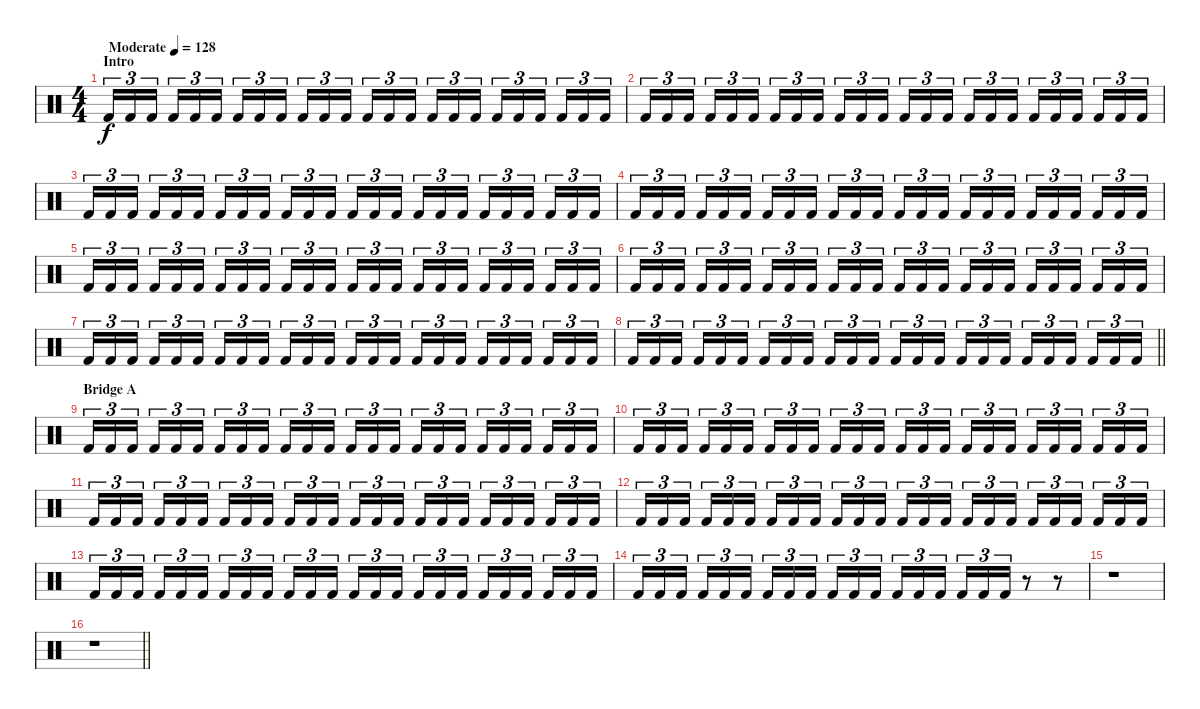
\track "" {instrument percussion}
\staff {score}
\articulation defaults
\ts (4 4)
\section ("" "Intro")
\tempo (128 "Moderate")
\clef neutral
\ks c "Kick (hit) 2".16{tu (3 2) dy f} "Kick (hit) 2".16{tu (3 2)} "Kick (hit) 2".16{tu (3 2) beam splitsecondary} "Kick (hit) 2".16{tu (3 2)} "Kick (hit) 2".16{tu (3 2)} "Kick (hit) 2".16{tu (3 2)} "Kick (hit) 2".16{tu (3 2)} "Kick (hit) 2".16{tu (3 2)} "Kick (hit) 2".16{tu (3 2) beam splitsecondary} "Kick (hit) 2".16{tu (3 2)} "Kick (hit) 2".16{tu (3 2)} "Kick (hit) 2".16{tu (3 2)} "Kick (hit) 2".16{tu (3 2)} "Kick (hit) 2".16{tu (3 2)} "Kick (hit) 2".16{tu (3 2) beam splitsecondary} "Kick (hit) 2".16{tu (3 2)} "Kick (hit) 2".16{tu (3 2)} "Kick (hit) 2".16{tu (3 2)} "Kick (hit) 2".16{tu (3 2)} "Kick (hit) 2".16{tu (3 2)} "Kick (hit) 2".16{tu (3 2) beam splitsecondary} "Kick (hit) 2".16{tu (3 2)} "Kick (hit) 2".16{tu (3 2)} "Kick (hit) 2".16{tu (3 2)}
|
"Kick (hit) 2".16{tu (3 2)} "Kick (hit) 2".16{tu (3 2)} "Kick (hit) 2".16{tu (3 2) beam splitsecondary} "Kick (hit) 2".16{tu (3 2)} "Kick (hit) 2".16{tu (3 2)} "Kick (hit) 2".16{tu (3 2)} "Kick (hit) 2".16{tu (3 2)} "Kick (hit) 2".16{tu (3 2)} "Kick (hit) 2".16{tu (3 2) beam splitsecondary} "Kick (hit) 2".16{tu (3 2)} "Kick (hit) 2".16{tu (3 2)} "Kick (hit) 2".16{tu (3 2)} "Kick (hit) 2".16{tu (3 2)} "Kick (hit) 2".16{tu (3 2)} "Kick (hit) 2".16{tu (3 2) beam splitsecondary} "Kick (hit) 2".16{tu (3 2)} "Kick (hit) 2".16{tu (3 2)} "Kick (hit) 2".16{tu (3 2)} "Kick (hit) 2".16{tu (3 2)} "Kick (hit) 2".16{tu (3 2)} "Kick (hit) 2".16{tu (3 2) beam splitsecondary} "Kick (hit) 2".16{tu (3 2)} "Kick (hit) 2".16{tu (3 2)} "Kick (hit) 2".16{tu (3 2)} |
"Kick (hit) 2".16{tu (3 2)} "Kick (hit) 2".16{tu (3 2)} "Kick (hit) 2".16{tu (3 2) beam splitsecondary} "Kick (hit) 2".16{tu (3 2)} "Kick (hit) 2".16{tu (3 2)} "Kick (hit) 2".16{tu (3 2)} "Kick (hit) 2".16{tu (3 2)} "Kick (hit) 2".16{tu (3 2)} "Kick (hit) 2".16{tu (3 2) beam splitsecondary} "Kick (hit) 2".16{tu (3 2)} "Kick (hit) 2".16{tu (3 2)} "Kick (hit) 2".16{tu (3 2)} "Kick (hit) 2".16{tu (3 2)} "Kick (hit) 2".16{tu (3 2)} "Kick (hit) 2".16{tu (3 2) beam splitsecondary} "Kick (hit) 2".16{tu (3 2)} "Kick (hit) 2".16{tu (3 2)} "Kick (hit) 2".16{tu (3 2)} "Kick (hit) 2".16{tu (3 2)} "Kick (hit) 2".16{tu (3 2)} "Kick (hit) 2".16{tu (3 2) beam splitsecondary} "Kick (hit) 2".16{tu (3 2)} "Kick (hit) 2".16{tu (3 2)} "Kick (hit) 2".16{tu (3 2)} |
"Kick (hit) 2".16{tu (3 2)} "Kick (hit) 2".16{tu (3 2)} "Kick (hit) 2".16{tu (3 2) beam splitsecondary} "Kick (hit) 2".16{tu (3 2)} "Kick (hit) 2".16{tu (3 2)} "Kick (hit) 2".16{tu (3 2)} "Kick (hit) 2".16{tu (3 2)} "Kick (hit) 2".16{tu (3 2)} "Kick (hit) 2".16{tu (3 2) beam splitsecondary} "Kick (hit) 2".16{tu (3 2)} "Kick (hit) 2".16{tu (3 2)} "Kick (hit) 2".16{tu (3 2)} "Kick (hit) 2".16{tu (3 2)} "Kick (hit) 2".16{tu (3 2)} "Kick (hit) 2".16{tu (3 2) beam splitsecondary} "Kick (hit) 2".16{tu (3 2)} "Kick (hit) 2".16{tu (3 2)} "Kick (hit) 2".16{tu (3 2)} "Kick (hit) 2".16{tu (3 2)} "Kick (hit) 2".16{tu (3 2)} "Kick (hit) 2".16{tu (3 2) beam splitsecondary} "Kick (hit) 2".16{tu (3 2)} "Kick (hit) 2".16{tu (3 2)} "Kick (hit) 2".16{tu (3 2)} |
"Kick (hit) 2".16{tu (3 2)} "Kick (hit) 2".16{tu (3 2)} "Kick (hit) 2".16{tu (3 2) beam splitsecondary} "Kick (hit) 2".16{tu (3 2)} "Kick (hit) 2".16{tu (3 2)} "Kick (hit) 2".16{tu (3 2)} "Kick (hit) 2".16{tu (3 2)} "Kick (hit) 2".16{tu (3 2)} "Kick (hit) 2".16{tu (3 2) beam splitsecondary} "Kick (hit) 2".16{tu (3 2)} "Kick (hit) 2".16{tu (3 2)} "Kick (hit) 2".16{tu (3 2)} "Kick (hit) 2".16{tu (3 2)} "Kick (hit) 2".16{tu (3 2)} "Kick (hit) 2".16{tu (3 2) beam splitsecondary} "Kick (hit) 2".16{tu (3 2)} "Kick (hit) 2".16{tu (3 2)} "Kick (hit) 2".16{tu (3 2)} "Kick (hit) 2".16{tu (3 2)} "Kick (hit) 2".16{tu (3 2)} "Kick (hit) 2".16{tu (3 2) beam splitsecondary} "Kick (hit) 2".16{tu (3 2)} "Kick (hit) 2".16{tu (3 2)} "Kick (hit) 2".16{tu (3 2)} |
"Kick (hit) 2".16{tu (3 2)} "Kick (hit) 2".16{tu (3 2)} "Kick (hit) 2".16{tu (3 2) beam splitsecondary} "Kick (hit) 2".16{tu (3 2)} "Kick (hit) 2".16{tu (3 2)} "Kick (hit) 2".16{tu (3 2)} "Kick (hit) 2".16{tu (3 2)} "Kick (hit) 2".16{tu (3 2)} "Kick (hit) 2".16{tu (3 2) beam splitsecondary} "Kick (hit) 2".16{tu (3 2)} "Kick (hit) 2".16{tu (3 2)} "Kick (hit) 2".16{tu (3 2)} "Kick (hit) 2".16{tu (3 2)} "Kick (hit) 2".16{tu (3 2)} "Kick (hit) 2".16{tu (3 2) beam splitsecondary} "Kick (hit) 2".16{tu (3 2)} "Kick (hit) 2".16{tu (3 2)} "Kick (hit) 2".16{tu (3 2)} "Kick (hit) 2".16{tu (3 2)} "Kick (hit) 2".16{tu (3 2)} "Kick (hit) 2".16{tu (3 2) beam splitsecondary} "Kick (hit) 2".16{tu (3 2)} "Kick (hit) 2".16{tu (3 2)} "Kick (hit) 2".16{tu (3 2)} |
"Kick (hit) 2".16{tu (3 2)} "Kick (hit) 2".16{tu (3 2)} "Kick (hit) 2".16{tu (3 2) beam splitsecondary} "Kick (hit) 2".16{tu (3 2)} "Kick (hit) 2".16{tu (3 2)} "Kick (hit) 2".16{tu (3 2)} "Kick (hit) 2".16{tu (3 2)} "Kick (hit) 2".16{tu (3 2)} "Kick (hit) 2".16{tu (3 2) beam splitsecondary} "Kick (hit) 2".16{tu (3 2)} "Kick (hit) 2".16{tu (3 2)} "Kick (hit) 2".16{tu (3 2)} "Kick (hit) 2".16{tu (3 2)} "Kick (hit) 2".16{tu (3 2)} "Kick (hit) 2".16{tu (3 2) beam splitsecondary} "Kick (hit) 2".16{tu (3 2)} "Kick (hit) 2".16{tu (3 2)} "Kick (hit) 2".16{tu (3 2)} "Kick (hit) 2".16{tu (3 2)} "Kick (hit) 2".16{tu (3 2)} "Kick (hit) 2".16{tu (3 2) beam splitsecondary} "Kick (hit) 2".16{tu (3 2)} "Kick (hit) 2".16{tu (3 2)} "Kick (hit) 2".16{tu (3 2)} |
\barLineRight lightlight "Kick (hit) 2".16{tu (3 2)} "Kick (hit) 2".16{tu (3 2)} "Kick (hit) 2".16{tu (3 2) beam splitsecondary} "Kick (hit) 2".16{tu (3 2)} "Kick (hit) 2".16{tu (3 2)} "Kick (hit) 2".16{tu (3 2)} "Kick (hit) 2".16{tu (3 2)} "Kick (hit) 2".16{tu (3 2)} "Kick (hit) 2".16{tu (3 2) beam splitsecondary} "Kick (hit) 2".16{tu (3 2)} "Kick (hit) 2".16{tu (3 2)} "Kick (hit) 2".16{tu (3 2)} "Kick (hit) 2".16{tu (3 2)} "Kick (hit) 2".16{tu (3 2)} "Kick (hit) 2".16{tu (3 2) beam splitsecondary} "Kick (hit) 2".16{tu (3 2)} "Kick (hit) 2".16{tu (3 2)} "Kick (hit) 2".16{tu (3 2)} "Kick (hit) 2".16{tu (3 2)} "Kick (hit) 2".16{tu (3 2)} "Kick (hit) 2".16{tu (3 2) beam splitsecondary} "Kick (hit) 2".16{tu (3 2)} "Kick (hit) 2".16{tu (3 2)} "Kick (hit) 2".16{tu (3 2)}
|
\section ("" "Bridge A")
"Kick (hit) 2".16{tu (3 2)} "Kick (hit) 2".16{tu (3 2)} "Kick (hit) 2".16{tu (3 2) beam splitsecondary} "Kick (hit) 2".16{tu (3 2)} "Kick (hit) 2".16{tu (3 2)} "Kick (hit) 2".16{tu (3 2)} "Kick (hit) 2".16{tu (3 2)} "Kick (hit) 2".16{tu (3 2)} "Kick (hit) 2".16{tu (3 2) beam splitsecondary} "Kick (hit) 2".16{tu (3 2)} "Kick (hit) 2".16{tu (3 2)} "Kick (hit) 2".16{tu (3 2)} "Kick (hit) 2".16{tu (3 2)} "Kick (hit) 2".16{tu (3 2)} "Kick (hit) 2".16{tu (3 2) beam splitsecondary} "Kick (hit) 2".16{tu (3 2)} "Kick (hit) 2".16{tu (3 2)} "Kick (hit) 2".16{tu (3 2)} "Kick (hit) 2".16{tu (3 2)} "Kick (hit) 2".16{tu (3 2)} "Kick (hit) 2".16{tu (3 2) beam splitsecondary} "Kick (hit) 2".16{tu (3 2)} "Kick (hit) 2".16{tu (3 2)} "Kick (hit) 2".16{tu (3 2)} |
"Kick (hit) 2".16{tu (3 2)} "Kick (hit) 2".16{tu (3 2)} "Kick (hit) 2".16{tu (3 2) beam splitsecondary} "Kick (hit) 2".16{tu (3 2)} "Kick (hit) 2".16{tu (3 2)} "Kick (hit) 2".16{tu (3 2)} "Kick (hit) 2".16{tu (3 2)} "Kick (hit) 2".16{tu (3 2)} "Kick (hit) 2".16{tu (3 2) beam splitsecondary} "Kick (hit) 2".16{tu (3 2)} "Kick (hit) 2".16{tu (3 2)} "Kick (hit) 2".16{tu (3 2)} "Kick (hit) 2".16{tu (3 2)} "Kick (hit) 2".16{tu (3 2)} "Kick (hit) 2".16{tu (3 2) beam splitsecondary} "Kick (hit) 2".16{tu (3 2)} "Kick (hit) 2".16{tu (3 2)} "Kick (hit) 2".16{tu (3 2)} "Kick (hit) 2".16{tu (3 2)} "Kick (hit) 2".16{tu (3 2)} "Kick (hit) 2".16{tu (3 2) beam splitsecondary} "Kick (hit) 2".16{tu (3 2)} "Kick (hit) 2".16{tu (3 2)} "Kick (hit) 2".16{tu (3 2)} |
"Kick (hit) 2".16{tu (3 2)} "Kick (hit) 2".16{tu (3 2)} "Kick (hit) 2".16{tu (3 2) beam splitsecondary} "Kick (hit) 2".16{tu (3 2)} "Kick (hit) 2".16{tu (3 2)} "Kick (hit) 2".16{tu (3 2)} "Kick (hit) 2".16{tu (3 2)} "Kick (hit) 2".16{tu (3 2)} "Kick (hit) 2".16{tu (3 2) beam splitsecondary} "Kick (hit) 2".16{tu (3 2)} "Kick (hit) 2".16{tu (3 2)} "Kick (hit) 2".16{tu (3 2)} "Kick (hit) 2".16{tu (3 2)} "Kick (hit) 2".16{tu (3 2)} "Kick (hit) 2".16{tu (3 2) beam splitsecondary} "Kick (hit) 2".16{tu (3 2)} "Kick (hit) 2".16{tu (3 2)} "Kick (hit) 2".16{tu (3 2)} "Kick (hit) 2".16{tu (3 2)} "Kick (hit) 2".16{tu (3 2)} "Kick (hit) 2".16{tu (3 2) beam splitsecondary} "Kick (hit) 2".16{tu (3 2)} "Kick (hit) 2".16{tu (3 2)} "Kick (hit) 2".16{tu (3 2)} |
"Kick (hit) 2".16{tu (3 2)} "Kick (hit) 2".16{tu (3 2)} "Kick (hit) 2".16{tu (3 2) beam splitsecondary} "Kick (hit) 2".16{tu (3 2)} "Kick (hit) 2".16{tu (3 2)} "Kick (hit) 2".16{tu (3 2)} "Kick (hit) 2".16{tu (3 2)} "Kick (hit) 2".16{tu (3 2)} "Kick (hit) 2".16{tu (3 2) beam splitsecondary} "Kick (hit) 2".16{tu (3 2)} "Kick (hit) 2".16{tu (3 2)} "Kick (hit) 2".16{tu (3 2)} "Kick (hit) 2".16{tu (3 2)} "Kick (hit) 2".16{tu (3 2)} "Kick (hit) 2".16{tu (3 2) beam splitsecondary} "Kick (hit) 2".16{tu (3 2)} "Kick (hit) 2".16{tu (3 2)} "Kick (hit) 2".16{tu (3 2)} "Kick (hit) 2".16{tu (3 2)} "Kick (hit) 2".16{tu (3 2)} "Kick (hit) 2".16{tu (3 2) beam splitsecondary} "Kick (hit) 2".16{tu (3 2)} "Kick (hit) 2".16{tu (3 2)} "Kick (hit) 2".16{tu (3 2)} |
"Kick (hit) 2".16{tu (3 2)} "Kick (hit) 2".16{tu (3 2)} "Kick (hit) 2".16{tu (3 2) beam splitsecondary} "Kick (hit) 2".16{tu (3 2)} "Kick (hit) 2".16{tu (3 2)} "Kick (hit) 2".16{tu (3 2)} "Kick (hit) 2".16{tu (3 2)} "Kick (hit) 2".16{tu (3 2)} "Kick (hit) 2".16{tu (3 2) beam splitsecondary} "Kick (hit) 2".16{tu (3 2)} "Kick (hit) 2".16{tu (3 2)} "Kick (hit) 2".16{tu (3 2)} "Kick (hit) 2".16{tu (3 2)} "Kick (hit) 2".16{tu (3 2)} "Kick (hit) 2".16{tu (3 2) beam splitsecondary} "Kick (hit) 2".16{tu (3 2)} "Kick (hit) 2".16{tu (3 2)} "Kick (hit) 2".16{tu (3 2)} "Kick (hit) 2".16{tu (3 2)} "Kick (hit) 2".16{tu (3 2)} "Kick (hit) 2".16{tu (3 2) beam splitsecondary} "Kick (hit) 2".16{tu (3 2)} "Kick (hit) 2".16{tu (3 2)} "Kick (hit) 2".16{tu (3 2)} |
"Kick (hit) 2".16{tu (3 2)} "Kick (hit) 2".16{tu (3 2)} "Kick (hit) 2".16{tu (3 2) beam splitsecondary} "Kick (hit) 2".16{tu (3 2)} "Kick (hit) 2".16{tu (3 2)} "Kick (hit) 2".16{tu (3 2)} "Kick (hit) 2".16{tu (3 2)} "Kick (hit) 2".16{tu (3 2)} "Kick (hit) 2".16{tu (3 2) beam splitsecondary} "Kick (hit) 2".16{tu (3 2)} "Kick (hit) 2".16{tu (3 2)} "Kick (hit) 2".16{tu (3 2)} "Kick (hit) 2".16{tu (3 2)} "Kick (hit) 2".16{tu (3 2)} "Kick (hit) 2".16{tu (3 2) beam splitsecondary} "Kick (hit) 2".16{tu (3 2)} "Kick (hit) 2".16{tu (3 2)} "Kick (hit) 2".16{tu (3 2)} r.8 r.8 |
r.1 |
\barLineRight lightlight
r.1
